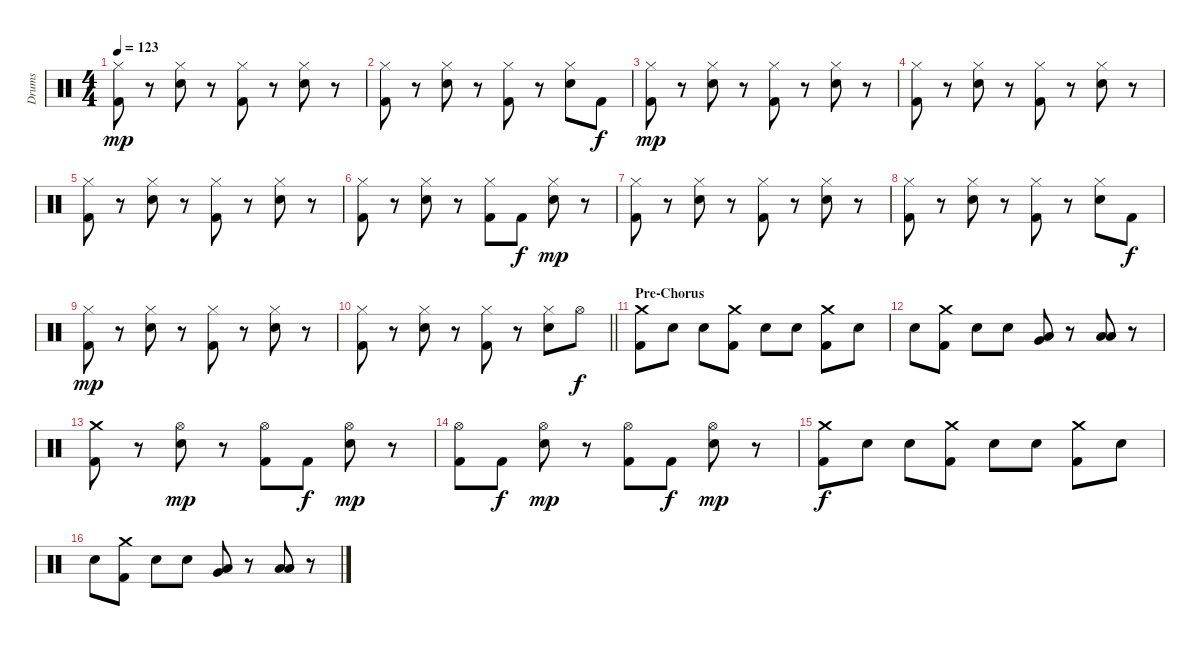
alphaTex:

\track ("Drums" "Drums") {instrument percussion}
\staff {score}
\articulation defaults
\ts (4 4)
\tempo 123
\clef neutral
\ks c
("Hi-Hat (closed)" "Kick (hit) 2").8{dy mp} r.8 ("Hi-Hat (closed)" "Snare (hit) 2").8 r.8 ("Hi-Hat (closed)" "Kick (hit) 2").8 r.8 ("Hi-Hat (closed)" "Snare (hit) 2").8 r.8 |
("Hi-Hat (closed)" "Kick (hit) 2").8 r.8 ("Hi-Hat (closed)" "Snare (hit) 2").8 r.8 ("Hi-Hat (closed)" "Kick (hit) 2").8 r.8 ("Hi-Hat (closed)" "Snare (hit) 2").8 "Kick (hit) 2".8{dy f} |
("Hi-Hat (closed)" "Kick (hit) 2").8{dy mp} r.8 ("Hi-Hat (closed)" "Snare (hit) 2").8 r.8 ("Hi-Hat (closed)" "Kick (hit) 2").8 r.8 ("Hi-Hat (closed)" "Snare (hit) 2").8 r.8 |
("Hi-Hat (closed)" "Kick (hit) 2").8 r.8 ("Hi-Hat (closed)" "Snare (hit) 2").8 r.8 ("Hi-Hat (closed)" "Kick (hit) 2").8 r.8 ("Hi-Hat (closed)" "Snare (hit) 2").8 r.8 |
("Hi-Hat (closed)" "Kick (hit) 2").8 r.8 ("Hi-Hat (closed)" "Snare (hit) 2").8 r.8 ("Hi-Hat (closed)" "Kick (hit) 2").8 r.8 ("Hi-Hat (closed)" "Snare (hit) 2").8 r.8 |
("Hi-Hat (closed)" "Kick (hit) 2").8 r.8 ("Hi-Hat (closed)" "Snare (hit) 2").8 r.8 ("Hi-Hat (closed)" "Kick (hit) 2").8 "Kick (hit) 2".8{dy f} ("Hi-Hat (closed)" "Snare (hit) 2").8{dy mp} r.8 |
("Hi-Hat (closed)" "Kick (hit) 2").8 r.8 ("Hi-Hat (closed)" "Snare (hit) 2").8 r.8 ("Hi-Hat (closed)" "Kick (hit) 2").8 r.8 ("Hi-Hat (closed)" "Snare (hit) 2").8 r.8 |
("Hi-Hat (closed)" "Kick (hit) 2").8 r.8 ("Hi-Hat (closed)" "Snare (hit) 2").8 r.8 ("Hi-Hat (closed)" "Kick (hit) 2").8 r.8 ("Hi-Hat (closed)" "Snare (hit) 2").8 "Kick (hit) 2".8{dy f} |
("Hi-Hat (closed)" "Kick (hit) 2").8{dy mp} r.8 ("Hi-Hat (closed)" "Snare (hit) 2").8 r.8 ("Hi-Hat (closed)" "Kick (hit) 2").8 r.8 ("Hi-Hat (closed)" "Snare (hit) 2").8 r.8 |
\barLineRight lightlight
("Hi-Hat (closed)" "Kick (hit) 2").8 r.8 ("Hi-Hat (closed)" "Snare (hit) 2").8 r.8 ("Hi-Hat (closed)" "Kick (hit) 2").8 r.8 ("Hi-Hat (closed)" "Snare (hit) 2").8 "Hi-Hat (open)".8{dy f} |
\section ("" "Pre-Chorus")
("Crash medium (hit)" "Kick (hit) 2").8 "Snare (hit) 2".8 "Snare (hit) 2".8 ("Crash medium (hit)" "Kick (hit) 2").8 "Snare (hit) 2".8 "Snare (hit) 2".8 ("Crash medium (hit)" "Kick (hit) 2").8 "Snare (hit) 2".8 |
"Snare (hit) 2".8 ("Crash medium (hit)" "Kick (hit) 2").8 "Snare (hit) 2".8 "Snare (hit) 2".8 ("Very Low Tom (hit)" "Low Floor Tom (hit)").8 r.8 ("Low Tom (hit)" "Low Floor Tom (hit)").8 r.8 |
("Crash medium (hit)" "Kick (hit) 2").8 r.8 ("Hi-Hat (open)" "Electric Snare (hit)").8{dy mp} r.8 ("Hi-Hat (open)" "Kick (hit) 2").8 "Kick (hit) 2".8{dy f} ("Hi-Hat (open)" "Electric Snare (hit)").8{dy mp} r.8 |
("Hi-Hat (open)" "Kick (hit) 2").8 "Kick (hit) 2".8{dy f} ("Hi-Hat (open)" "Electric Snare (hit)").8{dy mp} r.8 ("Hi-Hat (open)" "Kick (hit) 2").8 "Kick (hit) 2".8{dy f} ("Hi-Hat (open)" "Electric Snare (hit)").8{dy mp} r.8 |
("Crash medium (hit)" "Kick (hit) 2").8{dy f} "Snare (hit) 2".8 "Snare (hit) 2".8 ("Crash medium (hit)" "Kick (hit) 2").8 "Snare (hit) 2".8 "Snare (hit) 2".8 ("Crash medium (hit)" "Kick (hit) 2").8 "Snare (hit) 2".8 |
"Snare (hit) 2".8 ("Crash medium (hit)" "Kick (hit) 2").8 "Snare (hit) 2".8 "Snare (hit) 2".8 ("Very Low Tom (hit)" "Low Floor Tom (hit)").8 r.8 ("Low Tom (hit)" "Low Floor Tom (hit)").8 r.8
